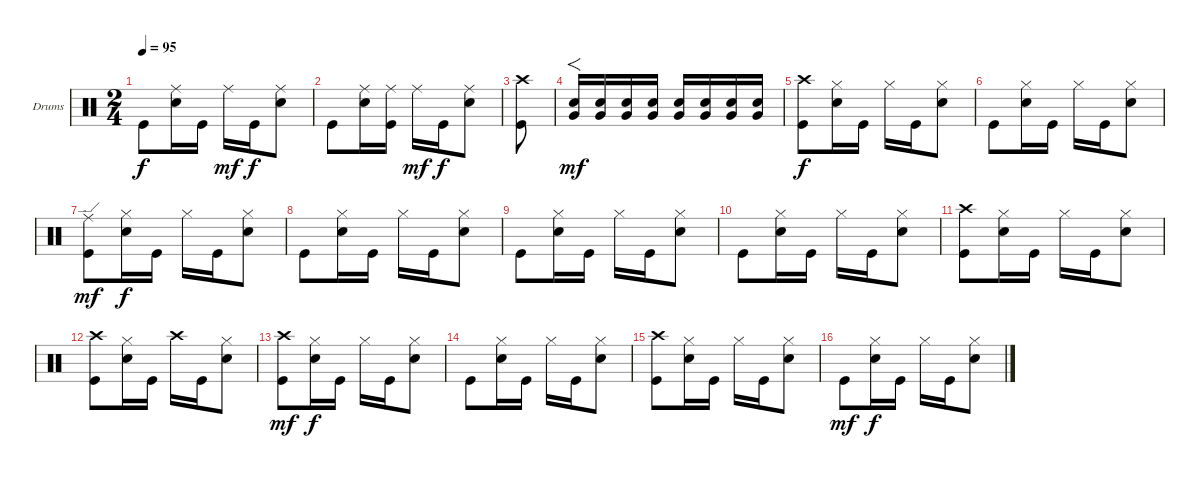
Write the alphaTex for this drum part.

\bracketExtendMode groupsimilarinstruments
\firstSystemTrackNameOrientation horizontal
\otherSystemsTrackNameOrientation horizontal
\track ("Drumkit" "Drums") {instrument percussion}
\staff {score}
\articulation defaults
\ts (2 4)
\tempo 95
\clef neutral
\ks c "Kick (hit)".8{dy f}
("Snare (hit) 2" "Ride (middle)").16 "Kick (hit)".16 "Ride (middle)".16{dy mf} "Kick (hit)".16{dy f} ("Snare (hit) 2" "Ride (middle)").8 |
"Kick (hit)".8 ("Snare (hit) 2" "Ride (middle)").16 ("Kick (hit)" "Ride (middle)").16 "Ride (middle)".16{dy mf} "Kick (hit)".16{dy f} ("Snare (hit) 2" "Ride (middle)").8 |
("Kick (hit)" "Crash high (hit)").8 |
("Snare (hit) 2" "Very Low Tom (hit)").16{f dy mf} ("Snare (hit) 2" "Very Low Tom (hit)").16 ("Snare (hit) 2" "Very Low Tom (hit)").16 ("Snare (hit) 2" "Very Low Tom (hit)").16 ("Snare (hit) 2" "Very Low Tom (hit)").16 ("Snare (hit) 2" "Very Low Tom (hit)").16 ("Snare (hit) 2" "Very Low Tom (hit)").16 ("Snare (hit) 2" "Very Low Tom (hit)").16 |
("Kick (hit)" "Crash high (hit)").8{dy f} ("Hi-Hat (closed)" "Snare (hit) 2").16 "Kick (hit)".16 "Hi-Hat (closed)".16 "Kick (hit)".16 ("Hi-Hat (closed)" "Snare (hit) 2").8 |
"Kick (hit)".8 ("Hi-Hat (closed)" "Snare (hit) 2").16 "Kick (hit)".16 "Hi-Hat (closed)".16 "Kick (hit)".16 ("Hi-Hat (closed)" "Snare (hit) 2").8 |
("Kick (hit)" "Ride (edge)").8{dy mf} ("Hi-Hat (closed)" "Snare (hit) 2").16{dy f} "Kick (hit)".16 "Hi-Hat (closed)".16 "Kick (hit)".16 ("Hi-Hat (closed)" "Snare (hit) 2").8 |
"Kick (hit)".8 ("Hi-Hat (closed)" "Snare (hit) 2").16 "Kick (hit)".16 "Hi-Hat (closed)".16 "Kick (hit)".16 ("Hi-Hat (closed)" "Snare (hit) 2").8 |
"Kick (hit)".8 ("Hi-Hat (closed)" "Snare (hit) 2").16 "Kick (hit)".16 "Hi-Hat (closed)".16 "Kick (hit)".16 ("Hi-Hat (closed)" "Snare (hit) 2").8 |
"Kick (hit)".8 ("Hi-Hat (closed)" "Snare (hit) 2").16 "Kick (hit)".16 "Hi-Hat (closed)".16 "Kick (hit)".16 ("Hi-Hat (closed)" "Snare (hit) 2").8 |
("Kick (hit)" "Crash high (hit)").8 ("Hi-Hat (closed)" "Snare (hit) 2").16 "Kick (hit)".16 "Hi-Hat (closed)".16 "Kick (hit)".16 ("Hi-Hat (closed)" "Snare (hit) 2").8 |
("Kick (hit)" "Crash high (hit)").8 ("Hi-Hat (closed)" "Snare (hit) 2").16 "Kick (hit)".16 "Crash high (hit)".16 "Kick (hit)".16 ("Hi-Hat (closed)" "Snare (hit) 2").8 |
("Kick (hit)" "Crash high (hit)").8{dy mf} ("Hi-Hat (closed)" "Snare (hit) 2").16{dy f} "Kick (hit)".16 "Hi-Hat (closed)".16 "Kick (hit)".16 ("Hi-Hat (closed)" "Snare (hit) 2").8 |
"Kick (hit)".8 ("Hi-Hat (closed)" "Snare (hit) 2").16 "Kick (hit)".16 "Hi-Hat (closed)".16 "Kick (hit)".16 ("Hi-Hat (closed)" "Snare (hit) 2").8 |
("Kick (hit)" "Crash high (hit)").8 ("Hi-Hat (closed)" "Snare (hit) 2").16 "Kick (hit)".16 "Hi-Hat (closed)".16 "Kick (hit)".16 ("Hi-Hat (closed)" "Snare (hit) 2").8 |
"Kick (hit)".8{dy mf} ("Hi-Hat (closed)" "Snare (hit) 2").16{dy f} "Kick (hit)".16 "Hi-Hat (closed)".16 "Kick (hit)".16 ("Hi-Hat (closed)" "Snare (hit) 2").8
